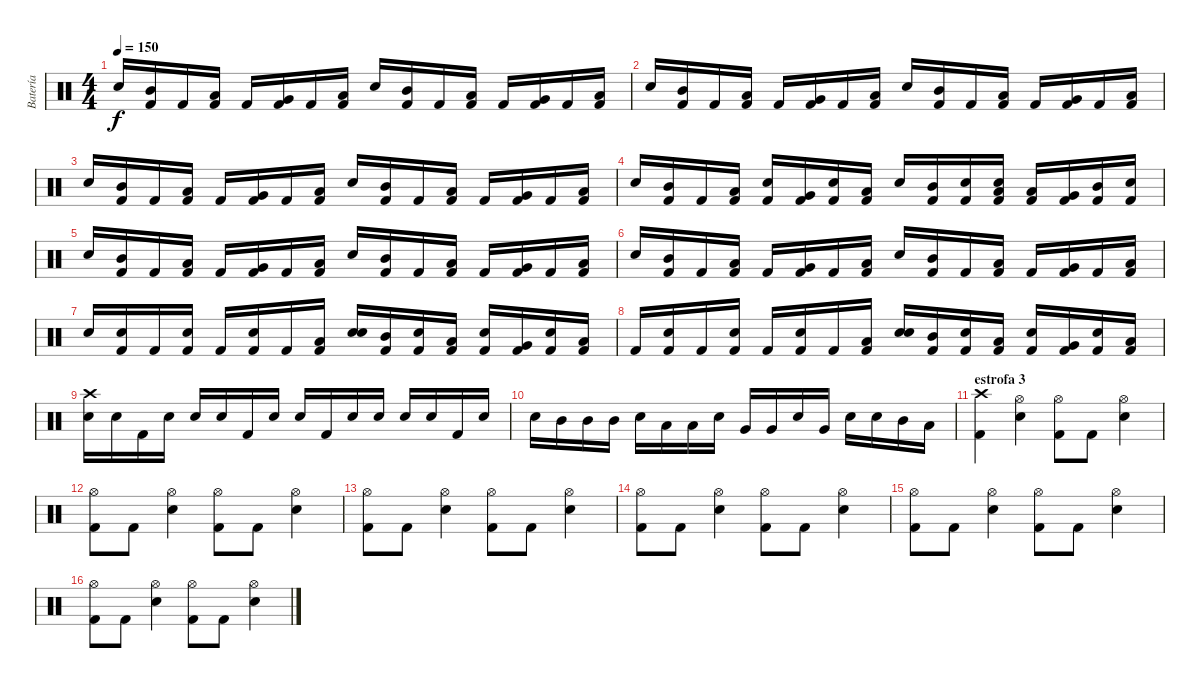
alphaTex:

\track ("Batería" "Batería") {instrument percussion}
\staff {score}
\articulation defaults
\ts (4 4)
\tempo 150
\clef neutral
\ks c "Electric Snare (hit)".16{dy f}
("Kick (hit) 2" "Mid Tom (hit)").16 "Kick (hit) 2".16 ("Kick (hit) 2" "Low Tom (hit)").16 "Kick (hit) 2".16 ("Kick (hit) 2" "Very Low Tom (hit)").16 "Kick (hit) 2".16 ("Kick (hit) 2" "Low Tom (hit)").16 "Electric Snare (hit)".16 ("Kick (hit) 2" "Mid Tom (hit)").16 "Kick (hit) 2".16 ("Kick (hit) 2" "Low Tom (hit)").16 "Kick (hit) 2".16 ("Kick (hit) 2" "Very Low Tom (hit)").16 "Kick (hit) 2".16 ("Kick (hit) 2" "Low Tom (hit)").16 |
"Electric Snare (hit)".16 ("Kick (hit) 2" "Mid Tom (hit)").16 "Kick (hit) 2".16 ("Kick (hit) 2" "Low Tom (hit)").16 "Kick (hit) 2".16 ("Kick (hit) 2" "Very Low Tom (hit)").16 "Kick (hit) 2".16 ("Kick (hit) 2" "Low Tom (hit)").16 "Electric Snare (hit)".16 ("Kick (hit) 2" "Mid Tom (hit)").16 "Kick (hit) 2".16 ("Kick (hit) 2" "Low Tom (hit)").16 "Kick (hit) 2".16 ("Kick (hit) 2" "Very Low Tom (hit)").16 "Kick (hit) 2".16 ("Kick (hit) 2" "Low Tom (hit)").16 |
"Electric Snare (hit)".16 ("Kick (hit) 2" "Mid Tom (hit)").16 "Kick (hit) 2".16 ("Kick (hit) 2" "Low Tom (hit)").16 "Kick (hit) 2".16 ("Kick (hit) 2" "Very Low Tom (hit)").16 "Kick (hit) 2".16 ("Kick (hit) 2" "Low Tom (hit)").16 "Electric Snare (hit)".16 ("Kick (hit) 2" "Mid Tom (hit)").16 "Kick (hit) 2".16 ("Kick (hit) 2" "Low Tom (hit)").16 "Kick (hit) 2".16 ("Kick (hit) 2" "Very Low Tom (hit)").16 "Kick (hit) 2".16 ("Kick (hit) 2" "Low Tom (hit)").16 |
"Electric Snare (hit)".16 ("Kick (hit) 2" "Mid Tom (hit)").16 "Kick (hit) 2".16 ("Kick (hit) 2" "Low Tom (hit)").16 ("Kick (hit) 2" "Electric Snare (hit)").16 ("Kick (hit) 2" "Very Low Tom (hit)").16 ("Kick (hit) 2" "Electric Snare (hit)").16 ("Kick (hit) 2" "Low Tom (hit)").16 "Electric Snare (hit)".16 ("Kick (hit) 2" "Mid Tom (hit)").16 ("Kick (hit) 2" "Electric Snare (hit)").16 ("Kick (hit) 2" "Low Tom (hit)" "Electric Snare (hit)").16 ("Kick (hit) 2" "Low Tom (hit)").16 ("Kick (hit) 2" "Very Low Tom (hit)").16 ("Kick (hit) 2" "Mid Tom (hit)").16 ("Kick (hit) 2" "Electric Snare (hit)").16 |
"Electric Snare (hit)".16 ("Kick (hit) 2" "Mid Tom (hit)").16 "Kick (hit) 2".16 ("Kick (hit) 2" "Low Tom (hit)").16 "Kick (hit) 2".16 ("Kick (hit) 2" "Very Low Tom (hit)").16 "Kick (hit) 2".16 ("Kick (hit) 2" "Low Tom (hit)").16 "Electric Snare (hit)".16 ("Kick (hit) 2" "Mid Tom (hit)").16 "Kick (hit) 2".16 ("Kick (hit) 2" "Low Tom (hit)").16 "Kick (hit) 2".16 ("Kick (hit) 2" "Very Low Tom (hit)").16 "Kick (hit) 2".16 ("Kick (hit) 2" "Low Tom (hit)").16 |
"Electric Snare (hit)".16 ("Kick (hit) 2" "Mid Tom (hit)").16 "Kick (hit) 2".16 ("Kick (hit) 2" "Low Tom (hit)").16 "Kick (hit) 2".16 ("Kick (hit) 2" "Very Low Tom (hit)").16 "Kick (hit) 2".16 ("Kick (hit) 2" "Low Tom (hit)").16 "Electric Snare (hit)".16 ("Kick (hit) 2" "Mid Tom (hit)").16 "Kick (hit) 2".16 ("Kick (hit) 2" "Low Tom (hit)").16 "Kick (hit) 2".16 ("Kick (hit) 2" "Very Low Tom (hit)").16 "Kick (hit) 2".16 ("Kick (hit) 2" "Low Tom (hit)").16 |
"Electric Snare (hit)".16 ("Kick (hit) 2" "Electric Snare (hit)").16 "Kick (hit) 2".16 ("Kick (hit) 2" "Electric Snare (hit)").16 "Kick (hit) 2".16 ("Kick (hit) 2" "Electric Snare (hit)").16 "Kick (hit) 2".16 ("Kick (hit) 2" "Low Tom (hit)").16 ("Electric Snare (hit)" "Electric Snare (hit)").16 ("Kick (hit) 2" "Mid Tom (hit)").16 ("Kick (hit) 2" "Electric Snare (hit)").16 ("Kick (hit) 2" "Low Tom (hit)").16 ("Kick (hit) 2" "Electric Snare (hit)").16 ("Kick (hit) 2" "Very Low Tom (hit)").16 ("Kick (hit) 2" "Electric Snare (hit)").16 ("Kick (hit) 2" "Low Tom (hit)").16 |
"Kick (hit) 2".16 ("Kick (hit) 2" "Electric Snare (hit)").16 "Kick (hit) 2".16 ("Kick (hit) 2" "Electric Snare (hit)").16 "Kick (hit) 2".16 ("Kick (hit) 2" "Electric Snare (hit)").16 "Kick (hit) 2".16 ("Kick (hit) 2" "Low Tom (hit)").16 ("Electric Snare (hit)" "Electric Snare (hit)").16 ("Kick (hit) 2" "Mid Tom (hit)").16 ("Kick (hit) 2" "Electric Snare (hit)").16 ("Kick (hit) 2" "Low Tom (hit)").16 ("Kick (hit) 2" "Electric Snare (hit)").16 ("Kick (hit) 2" "Very Low Tom (hit)").16 ("Kick (hit) 2" "Electric Snare (hit)").16 ("Kick (hit) 2" "Low Tom (hit)").16 |
("Electric Snare (hit)" "Crash high (hit)").16 "Electric Snare (hit)".16 "Kick (hit) 2".16 "Electric Snare (hit)".16 "Electric Snare (hit)".16 "Electric Snare (hit)".16 "Kick (hit) 2".16 "Electric Snare (hit)".16 "Electric Snare (hit)".16 "Kick (hit) 2".16 "Electric Snare (hit)".16 "Electric Snare (hit)".16 "Electric Snare (hit)".16 "Electric Snare (hit)".16 "Kick (hit) 2".16 "Electric Snare (hit)".16 |
"Electric Snare (hit)".16 "Mid Tom (hit)".16 "Mid Tom (hit)".16 "Mid Tom (hit)".16 "Electric Snare (hit)".16 "Low Tom (hit)".16 "Low Tom (hit)".16 "Electric Snare (hit)".16 "Very Low Tom (hit)".16 "Very Low Tom (hit)".16 "Electric Snare (hit)".16 "Very Low Tom (hit)".16 "Electric Snare (hit)".16 "Electric Snare (hit)".16 "Mid Tom (hit)".16 "Low Tom (hit)".16 |
\section ("" "estrofa 3")
("Crash high (hit)" "Kick (hit) 2").4 ("Hi-Hat (open)" "Electric Snare (hit)").4 ("Kick (hit) 2" "Hi-Hat (open)").8 "Kick (hit) 2".8 ("Hi-Hat (open)" "Electric Snare (hit)").4 |
("Hi-Hat (open)" "Kick (hit) 2").8 "Kick (hit) 2".8 ("Hi-Hat (open)" "Electric Snare (hit)").4 ("Kick (hit) 2" "Hi-Hat (open)").8 "Kick (hit) 2".8 ("Hi-Hat (open)" "Electric Snare (hit)").4 |
("Hi-Hat (open)" "Kick (hit) 2").8 "Kick (hit) 2".8 ("Hi-Hat (open)" "Electric Snare (hit)").4 ("Kick (hit) 2" "Hi-Hat (open)").8 "Kick (hit) 2".8 ("Hi-Hat (open)" "Electric Snare (hit)").4 |
("Hi-Hat (open)" "Kick (hit) 2").8 "Kick (hit) 2".8 ("Hi-Hat (open)" "Electric Snare (hit)").4 ("Kick (hit) 2" "Hi-Hat (open)").8 "Kick (hit) 2".8 ("Hi-Hat (open)" "Electric Snare (hit)").4 |
("Hi-Hat (open)" "Kick (hit) 2").8 "Kick (hit) 2".8 ("Hi-Hat (open)" "Electric Snare (hit)").4 ("Kick (hit) 2" "Hi-Hat (open)").8 "Kick (hit) 2".8 ("Hi-Hat (open)" "Electric Snare (hit)").4 |
("Hi-Hat (open)" "Kick (hit) 2").8 "Kick (hit) 2".8 ("Hi-Hat (open)" "Electric Snare (hit)").4 ("Kick (hit) 2" "Hi-Hat (open)").8 "Kick (hit) 2".8 ("Hi-Hat (open)" "Electric Snare (hit)").4
